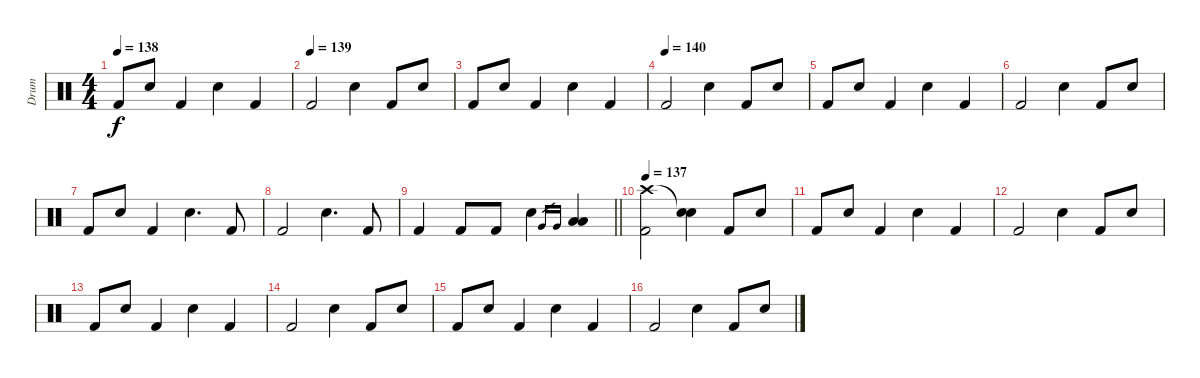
\track ("Drum" "Drum") {instrument percussion}
\staff {score}
\articulation defaults
\ts (4 4)
\tempo 138
\clef neutral
\ks c "Kick (hit) 2".8{dy f} "Electric Snare (hit)".8 "Kick (hit) 2".4 "Electric Snare (hit)".4 "Kick (hit) 2".4
|
\tempo (139)
"Kick (hit) 2".2 "Electric Snare (hit)".4 "Kick (hit) 2".8 "Electric Snare (hit)".8 |
"Kick (hit) 2".8 "Electric Snare (hit)".8 "Kick (hit) 2".4 "Electric Snare (hit)".4 "Kick (hit) 2".4 |
\tempo (140)
"Kick (hit) 2".2 "Electric Snare (hit)".4 "Kick (hit) 2".8 "Electric Snare (hit)".8 |
"Kick (hit) 2".8 "Electric Snare (hit)".8 "Kick (hit) 2".4 "Electric Snare (hit)".4 "Kick (hit) 2".4 |
"Kick (hit) 2".2 "Electric Snare (hit)".4 "Kick (hit) 2".8 "Electric Snare (hit)".8 |
"Kick (hit) 2".8 "Electric Snare (hit)".8 "Kick (hit) 2".4 "Electric Snare (hit)".4{d} "Kick (hit) 2".8 |
"Kick (hit) 2".2 "Electric Snare (hit)".4{d} "Kick (hit) 2".8 |
\barLineRight lightlight "Kick (hit) 2".4 "Kick (hit) 2".8 "Kick (hit) 2".8 "Electric Snare (hit)".4 "Very Low Tom (hit)".16{gr} "Very Low Tom (hit)".16{gr}
("Low Tom (hit)" "Low Tom (hit)").4 |
\tempo 137
("Crash high (hit)" "Kick (hit) 2").2 ("Snare (hit)"{t} "Electric Snare (hit)").4 "Kick (hit) 2".8 "Electric Snare (hit)".8 |
"Kick (hit) 2".8 "Electric Snare (hit)".8 "Kick (hit) 2".4 "Electric Snare (hit)".4 "Kick (hit) 2".4 |
"Kick (hit) 2".2 "Electric Snare (hit)".4 "Kick (hit) 2".8 "Electric Snare (hit)".8 |
"Kick (hit) 2".8 "Electric Snare (hit)".8 "Kick (hit) 2".4 "Electric Snare (hit)".4 "Kick (hit) 2".4 |
"Kick (hit) 2".2 "Electric Snare (hit)".4 "Kick (hit) 2".8 "Electric Snare (hit)".8 |
"Kick (hit) 2".8 "Electric Snare (hit)".8 "Kick (hit) 2".4 "Electric Snare (hit)".4 "Kick (hit) 2".4 |
"Kick (hit) 2".2 "Electric Snare (hit)".4 "Kick (hit) 2".8 "Electric Snare (hit)".8
